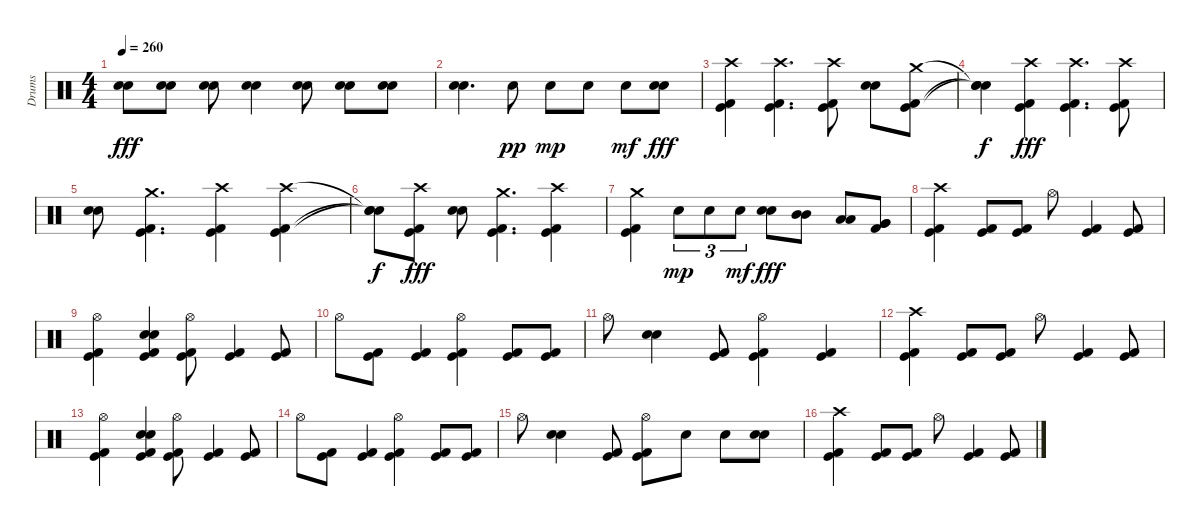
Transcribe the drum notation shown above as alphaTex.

\track ("Drums" "Drums") {instrument percussion}
\staff {score}
\articulation defaults
\ts (4 4)
\tempo 260
\clef neutral
\ks c
("Electric Snare (hit)" "Electric Snare (hit)").8{dy fff} ("Electric Snare (hit)" "Electric Snare (hit)").8 ("Electric Snare (hit)" "Electric Snare (hit)").8 ("Electric Snare (hit)" "Electric Snare (hit)").4 ("Electric Snare (hit)" "Electric Snare (hit)").8 ("Electric Snare (hit)" "Electric Snare (hit)").8 ("Electric Snare (hit)" "Electric Snare (hit)").8 |
("Electric Snare (hit)" "Electric Snare (hit)").4{d} "Electric Snare (hit)".8{dy pp} "Electric Snare (hit)".8{dy mp} "Electric Snare (hit)".8 "Electric Snare (hit)".8{dy mf} ("Electric Snare (hit)" "Electric Snare (hit)").8{dy fff} |
("Kick (hit)" "Kick (hit) 2" "Crash high (hit)").4 ("Kick (hit)" "Kick (hit) 2" "Crash high (hit)").4{d} ("Kick (hit)" "Kick (hit) 2" "Crash high (hit)").8 ("Electric Snare (hit)" "Electric Snare (hit)").8 ("Kick (hit)" "Kick (hit) 2" "Crash medium (hit)").8 |
("Snare (hit)"{t} "Snare (hit)"{t} "Snare (hit)"{t}).4{dy f} ("Kick (hit)" "Kick (hit) 2" "Crash high (hit)").4{dy fff} ("Kick (hit)" "Kick (hit) 2" "Crash high (hit)").4{d} ("Kick (hit)" "Kick (hit) 2" "Crash high (hit)").8 |
("Electric Snare (hit)" "Electric Snare (hit)").8 ("Kick (hit)" "Kick (hit) 2" "Crash medium (hit)").4{d} ("Kick (hit)" "Kick (hit) 2" "Crash high (hit)").4 ("Kick (hit)" "Kick (hit) 2" "Crash high (hit)").4 |
("Snare (hit)"{t} "Snare (hit)"{t} "Snare (hit)"{t}).8{dy f} ("Kick (hit)" "Kick (hit) 2" "Crash high (hit)").8{dy fff} ("Electric Snare (hit)" "Electric Snare (hit)").8 ("Kick (hit)" "Kick (hit) 2" "Crash medium (hit)").4{d} ("Kick (hit)" "Kick (hit) 2" "Crash high (hit)").4 |
("Kick (hit)" "Kick (hit) 2" "Crash medium (hit)").4 "Electric Snare (hit)".8{tu (3 2) dy mp} "Electric Snare (hit)".8{tu (3 2)} "Electric Snare (hit)".8{tu (3 2) dy mf} ("Electric Snare (hit)" "Electric Snare (hit)").8{dy fff} ("Mid Tom (hit)" "Mid Tom (hit)").8 ("Low Tom (hit)" "Low Tom (hit)").8 ("Kick (hit) 2" "Very Low Tom (hit)" "Very Low Tom (hit)").8 |
("Kick (hit)" "Kick (hit) 2" "Crash high (hit)").4 ("Kick (hit)" "Kick (hit) 2").8 ("Kick (hit)" "Kick (hit) 2").8 "Hi-Hat (open)".8 ("Kick (hit)" "Kick (hit) 2").4 ("Kick (hit)" "Kick (hit) 2").8 |
("Kick (hit)" "Kick (hit) 2" "Hi-Hat (open)").4 ("Kick (hit)" "Kick (hit) 2" "Electric Snare (hit)" "Electric Snare (hit)").4 ("Kick (hit)" "Kick (hit) 2" "Hi-Hat (open)").8 ("Kick (hit)" "Kick (hit) 2").4 ("Kick (hit)" "Kick (hit) 2").8 |
"Hi-Hat (open)".8 ("Kick (hit)" "Kick (hit) 2").8 ("Kick (hit)" "Kick (hit) 2").4 ("Kick (hit)" "Kick (hit) 2" "Hi-Hat (open)").4 ("Kick (hit)" "Kick (hit) 2").8 ("Kick (hit)" "Kick (hit) 2").8 |
"Hi-Hat (open)".8 ("Electric Snare (hit)" "Electric Snare (hit)").4 ("Kick (hit)" "Kick (hit) 2").8 ("Kick (hit)" "Kick (hit) 2" "Hi-Hat (open)").4 ("Kick (hit)" "Kick (hit) 2").4 |
("Kick (hit)" "Kick (hit) 2" "Crash high (hit)").4 ("Kick (hit)" "Kick (hit) 2").8 ("Kick (hit)" "Kick (hit) 2").8 "Hi-Hat (open)".8 ("Kick (hit)" "Kick (hit) 2").4 ("Kick (hit)" "Kick (hit) 2").8 |
("Kick (hit)" "Kick (hit) 2" "Hi-Hat (open)").4 ("Kick (hit)" "Kick (hit) 2" "Electric Snare (hit)" "Electric Snare (hit)").4 ("Kick (hit)" "Kick (hit) 2" "Hi-Hat (open)").8 ("Kick (hit)" "Kick (hit) 2").4 ("Kick (hit)" "Kick (hit) 2").8 |
"Hi-Hat (open)".8 ("Kick (hit)" "Kick (hit) 2").8 ("Kick (hit)" "Kick (hit) 2").4 ("Kick (hit)" "Kick (hit) 2" "Hi-Hat (open)").4 ("Kick (hit)" "Kick (hit) 2").8 ("Kick (hit)" "Kick (hit) 2").8 |
"Hi-Hat (open)".8 ("Electric Snare (hit)" "Electric Snare (hit)").4 ("Kick (hit)" "Kick (hit) 2").8 ("Kick (hit)" "Kick (hit) 2" "Hi-Hat (open)").8 "Electric Snare (hit)".8 "Electric Snare (hit)".8 ("Electric Snare (hit)" "Electric Snare (hit)").8 |
("Kick (hit)" "Kick (hit) 2" "Crash high (hit)").4 ("Kick (hit)" "Kick (hit) 2").8 ("Kick (hit)" "Kick (hit) 2").8 "Hi-Hat (open)".8 ("Kick (hit)" "Kick (hit) 2").4 ("Kick (hit)" "Kick (hit) 2").8
